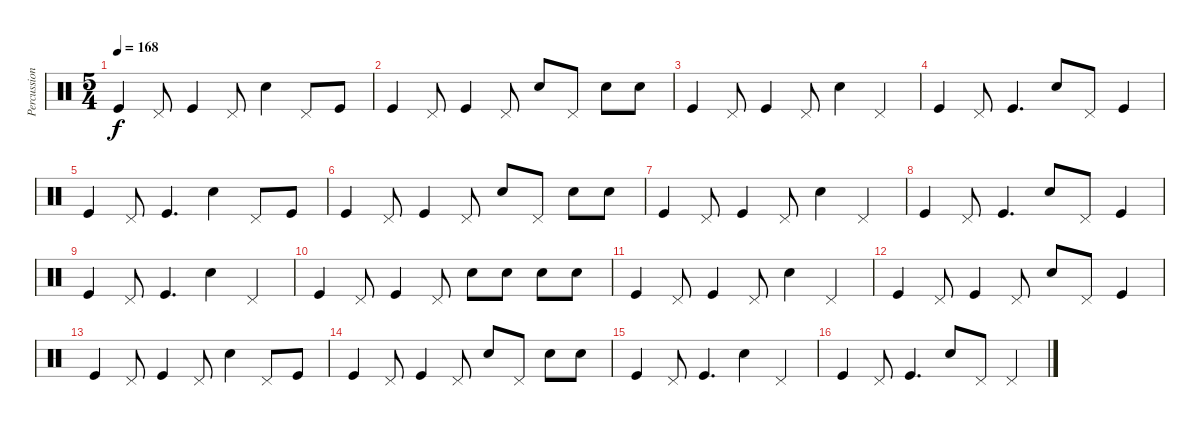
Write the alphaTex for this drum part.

\track ("Percussion" "Percussion") {instrument percussion}
\staff {score}
\articulation defaults
\ts (5 4)
\tempo 168
\clef neutral
\ks c "Kick (hit)".4{dy f} "Pedal Hi-Hat (hit)".8 "Kick (hit)".4 "Pedal Hi-Hat (hit)".8 "Snare (hit) 2".4 "Pedal Hi-Hat (hit)".8 "Kick (hit)".8
|
"Kick (hit)".4 "Pedal Hi-Hat (hit)".8 "Kick (hit)".4 "Pedal Hi-Hat (hit)".8 "Snare (hit) 2".8 "Pedal Hi-Hat (hit)".8 "Snare (hit) 2".8 "Snare (hit) 2".8 |
"Kick (hit)".4 "Pedal Hi-Hat (hit)".8 "Kick (hit)".4 "Pedal Hi-Hat (hit)".8 "Snare (hit) 2".4 "Pedal Hi-Hat (hit)".4 |
"Kick (hit)".4 "Pedal Hi-Hat (hit)".8 "Kick (hit)".4{d} "Snare (hit) 2".8 "Pedal Hi-Hat (hit)".8 "Kick (hit)".4 |
"Kick (hit)".4 "Pedal Hi-Hat (hit)".8 "Kick (hit)".4{d} "Snare (hit) 2".4 "Pedal Hi-Hat (hit)".8 "Kick (hit)".8 |
"Kick (hit)".4 "Pedal Hi-Hat (hit)".8 "Kick (hit)".4 "Pedal Hi-Hat (hit)".8 "Snare (hit) 2".8 "Pedal Hi-Hat (hit)".8 "Snare (hit) 2".8 "Snare (hit) 2".8 |
"Kick (hit)".4 "Pedal Hi-Hat (hit)".8 "Kick (hit)".4 "Pedal Hi-Hat (hit)".8 "Snare (hit) 2".4 "Pedal Hi-Hat (hit)".4 |
"Kick (hit)".4 "Pedal Hi-Hat (hit)".8 "Kick (hit)".4{d} "Snare (hit) 2".8 "Pedal Hi-Hat (hit)".8 "Kick (hit)".4 |
"Kick (hit)".4 "Pedal Hi-Hat (hit)".8 "Kick (hit)".4{d} "Snare (hit) 2".4 "Pedal Hi-Hat (hit)".4 |
"Kick (hit)".4 "Pedal Hi-Hat (hit)".8 "Kick (hit)".4 "Pedal Hi-Hat (hit)".8 "Snare (hit) 2".8 "Snare (hit) 2".8 "Snare (hit) 2".8 "Snare (hit) 2".8 |
"Kick (hit)".4 "Pedal Hi-Hat (hit)".8 "Kick (hit)".4 "Pedal Hi-Hat (hit)".8 "Snare (hit) 2".4 "Pedal Hi-Hat (hit)".4 |
"Kick (hit)".4 "Pedal Hi-Hat (hit)".8 "Kick (hit)".4 "Pedal Hi-Hat (hit)".8 "Snare (hit) 2".8 "Pedal Hi-Hat (hit)".8 "Kick (hit)".4 |
"Kick (hit)".4 "Pedal Hi-Hat (hit)".8 "Kick (hit)".4 "Pedal Hi-Hat (hit)".8 "Snare (hit) 2".4 "Pedal Hi-Hat (hit)".8 "Kick (hit)".8 |
"Kick (hit)".4 "Pedal Hi-Hat (hit)".8 "Kick (hit)".4 "Pedal Hi-Hat (hit)".8 "Snare (hit) 2".8 "Pedal Hi-Hat (hit)".8 "Snare (hit) 2".8 "Snare (hit) 2".8 |
"Kick (hit)".4 "Pedal Hi-Hat (hit)".8 "Kick (hit)".4{d} "Snare (hit) 2".4 "Pedal Hi-Hat (hit)".4 |
"Kick (hit)".4 "Pedal Hi-Hat (hit)".8 "Kick (hit)".4{d} "Snare (hit) 2".8 "Pedal Hi-Hat (hit)".8 "Pedal Hi-Hat (hit)".4
